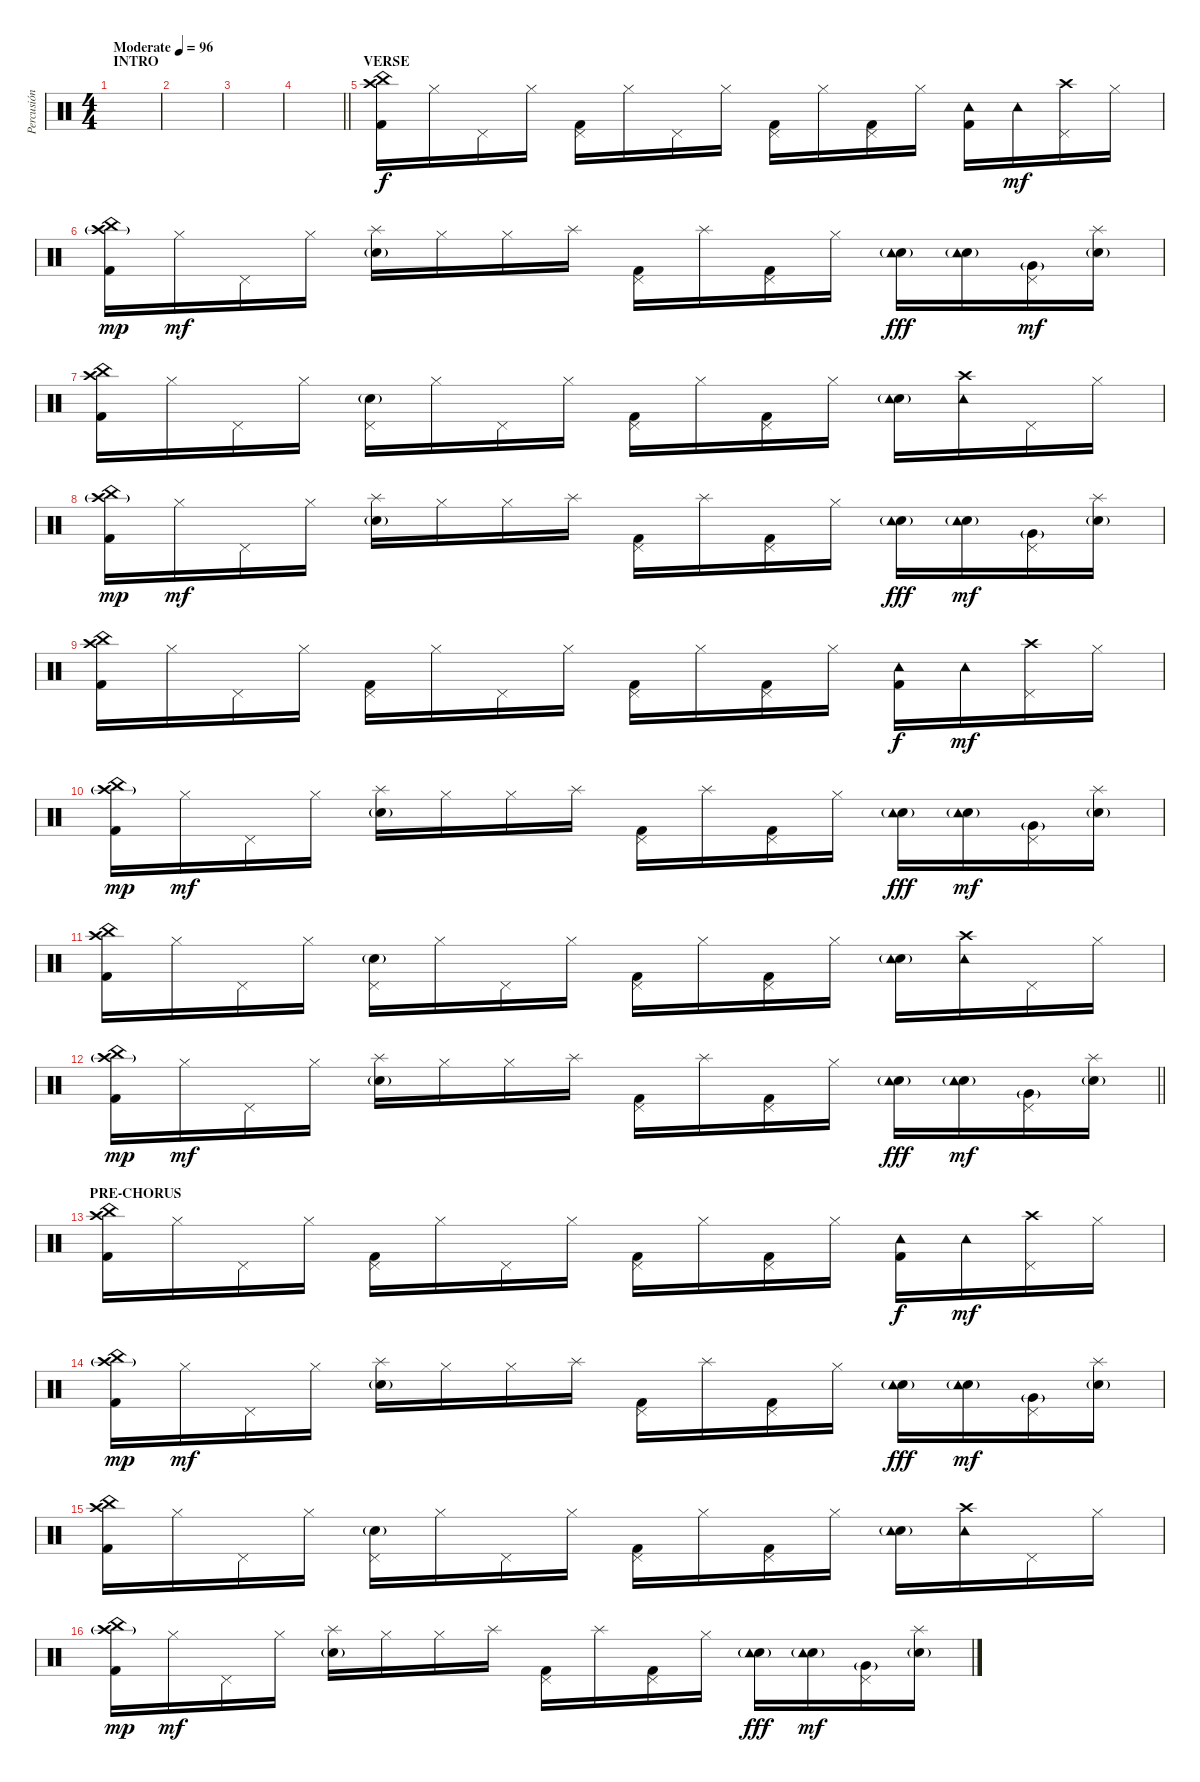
\track ("Percusión" "Percusión") {instrument percussion}
\staff {score}
\articulation defaults
\ts (4 4)
\section ("" "INTRO")
\tempo (96 "Moderate")
\clef neutral
\ks c
|
|
|
\barLineRight lightlight
|
\section ("" "VERSE")
("China (hit)" "Kick (hit) 2" "Crash high (hit)").16 "Hi-Hat (closed)".16 "Pedal Hi-Hat (hit)".16 "Hi-Hat (closed)".16 ("Kick (hit) 2" "Pedal Hi-Hat (hit)").16 "Hi-Hat (closed)".16 "Pedal Hi-Hat (hit)".16 "Hi-Hat (closed)".16 ("Kick (hit) 2" "Pedal Hi-Hat (hit)").16 "Hi-Hat (closed)".16 ("Kick (hit) 2" "Pedal Hi-Hat (hit)").16 "Hi-Hat (closed)".16 ("Kick (hit) 2" "Tambourine (hit)").16{dy f} "Tambourine (hit)".16{dy mf} ("Crash high (hit)" "Pedal Hi-Hat (hit)").16 "Hi-Hat (closed)".16 |
("China (hit)" "Kick (hit) 2" "Crash high (hit)"{g}).16{dy mp} "Hi-Hat (closed)".16{dy mf} "Pedal Hi-Hat (hit)".16 "Hi-Hat (closed)".16 ("Electric Snare (hit)"{g} "Splash (hit)").16 "Hi-Hat (closed)".16 "Hi-Hat (closed)".16 "Splash (hit)".16 ("Kick (hit) 2" "Pedal Hi-Hat (hit)").16 "Splash (hit)".16 ("Kick (hit) 2" "Pedal Hi-Hat (hit)").16 "Hi-Hat (closed)".16 ("Electric Snare (hit)"{g} "Tambourine (hit)").16{dy fff} ("Electric Snare (hit)"{g} "Tambourine (hit)").16 ("Very Low Tom (hit)"{g} "Pedal Hi-Hat (hit)").16{dy mf} ("Electric Snare (hit)"{g} "Splash (hit)").16 |
("China (hit)" "Kick (hit) 2" "Crash high (hit)").16 "Hi-Hat (closed)".16 "Pedal Hi-Hat (hit)".16 "Hi-Hat (closed)".16 ("Electric Snare (hit)"{g} "Pedal Hi-Hat (hit)").16 "Hi-Hat (closed)".16 "Pedal Hi-Hat (hit)".16 "Hi-Hat (closed)".16 ("Kick (hit) 2" "Pedal Hi-Hat (hit)").16 "Hi-Hat (closed)".16 ("Kick (hit) 2" "Pedal Hi-Hat (hit)").16 "Hi-Hat (closed)".16 ("Electric Snare (hit)"{g} "Tambourine (hit)").16 ("Crash high (hit)" "Tambourine (hit)").16 "Pedal Hi-Hat (hit)".16 "Hi-Hat (closed)".16 |
("China (hit)" "Kick (hit) 2" "Crash high (hit)"{g}).16{dy mp} "Hi-Hat (closed)".16{dy mf} "Pedal Hi-Hat (hit)".16 "Hi-Hat (closed)".16 ("Electric Snare (hit)"{g} "Splash (hit)").16 "Hi-Hat (closed)".16 "Hi-Hat (closed)".16 "Splash (hit)".16 ("Kick (hit) 2" "Pedal Hi-Hat (hit)").16 "Splash (hit)".16 ("Kick (hit) 2" "Pedal Hi-Hat (hit)").16 "Hi-Hat (closed)".16 ("Electric Snare (hit)"{g} "Tambourine (hit)").16{dy fff} ("Electric Snare (hit)"{g} "Tambourine (hit)").16{dy mf} ("Very Low Tom (hit)"{g} "Pedal Hi-Hat (hit)").16 ("Electric Snare (hit)"{g} "Splash (hit)").16 |
("China (hit)" "Kick (hit) 2" "Crash high (hit)").16 "Hi-Hat (closed)".16 "Pedal Hi-Hat (hit)".16 "Hi-Hat (closed)".16 ("Kick (hit) 2" "Pedal Hi-Hat (hit)").16 "Hi-Hat (closed)".16 "Pedal Hi-Hat (hit)".16 "Hi-Hat (closed)".16 ("Kick (hit) 2" "Pedal Hi-Hat (hit)").16 "Hi-Hat (closed)".16 ("Kick (hit) 2" "Pedal Hi-Hat (hit)").16 "Hi-Hat (closed)".16 ("Kick (hit) 2" "Tambourine (hit)").16{dy f} "Tambourine (hit)".16{dy mf} ("Crash high (hit)" "Pedal Hi-Hat (hit)").16 "Hi-Hat (closed)".16 |
("China (hit)" "Kick (hit) 2" "Crash high (hit)"{g}).16{dy mp} "Hi-Hat (closed)".16{dy mf} "Pedal Hi-Hat (hit)".16 "Hi-Hat (closed)".16 ("Electric Snare (hit)"{g} "Splash (hit)").16 "Hi-Hat (closed)".16 "Hi-Hat (closed)".16 "Splash (hit)".16 ("Kick (hit) 2" "Pedal Hi-Hat (hit)").16 "Splash (hit)".16 ("Kick (hit) 2" "Pedal Hi-Hat (hit)").16 "Hi-Hat (closed)".16 ("Electric Snare (hit)"{g} "Tambourine (hit)").16{dy fff} ("Electric Snare (hit)"{g} "Tambourine (hit)").16{dy mf} ("Very Low Tom (hit)"{g} "Pedal Hi-Hat (hit)").16 ("Electric Snare (hit)"{g} "Splash (hit)").16 |
("China (hit)" "Kick (hit) 2" "Crash high (hit)").16 "Hi-Hat (closed)".16 "Pedal Hi-Hat (hit)".16 "Hi-Hat (closed)".16 ("Electric Snare (hit)"{g} "Pedal Hi-Hat (hit)").16 "Hi-Hat (closed)".16 "Pedal Hi-Hat (hit)".16 "Hi-Hat (closed)".16 ("Kick (hit) 2" "Pedal Hi-Hat (hit)").16 "Hi-Hat (closed)".16 ("Kick (hit) 2" "Pedal Hi-Hat (hit)").16 "Hi-Hat (closed)".16 ("Electric Snare (hit)"{g} "Tambourine (hit)").16 ("Crash high (hit)" "Tambourine (hit)").16 "Pedal Hi-Hat (hit)".16 "Hi-Hat (closed)".16 |
\barLineRight lightlight
("China (hit)" "Kick (hit) 2" "Crash high (hit)"{g}).16{dy mp} "Hi-Hat (closed)".16{dy mf} "Pedal Hi-Hat (hit)".16 "Hi-Hat (closed)".16 ("Electric Snare (hit)"{g} "Splash (hit)").16 "Hi-Hat (closed)".16 "Hi-Hat (closed)".16 "Splash (hit)".16 ("Kick (hit) 2" "Pedal Hi-Hat (hit)").16 "Splash (hit)".16 ("Kick (hit) 2" "Pedal Hi-Hat (hit)").16 "Hi-Hat (closed)".16 ("Electric Snare (hit)"{g} "Tambourine (hit)").16{dy fff} ("Electric Snare (hit)"{g} "Tambourine (hit)").16{dy mf} ("Very Low Tom (hit)"{g} "Pedal Hi-Hat (hit)").16 ("Electric Snare (hit)"{g} "Splash (hit)").16 |
\section ("" "PRE-CHORUS")
("China (hit)" "Kick (hit) 2" "Crash high (hit)").16 "Hi-Hat (closed)".16 "Pedal Hi-Hat (hit)".16 "Hi-Hat (closed)".16 ("Kick (hit) 2" "Pedal Hi-Hat (hit)").16 "Hi-Hat (closed)".16 "Pedal Hi-Hat (hit)".16 "Hi-Hat (closed)".16 ("Kick (hit) 2" "Pedal Hi-Hat (hit)").16 "Hi-Hat (closed)".16 ("Kick (hit) 2" "Pedal Hi-Hat (hit)").16 "Hi-Hat (closed)".16 ("Kick (hit) 2" "Tambourine (hit)").16{dy f} "Tambourine (hit)".16{dy mf} ("Crash high (hit)" "Pedal Hi-Hat (hit)").16 "Hi-Hat (closed)".16 |
("China (hit)" "Kick (hit) 2" "Crash high (hit)"{g}).16{dy mp} "Hi-Hat (closed)".16{dy mf} "Pedal Hi-Hat (hit)".16 "Hi-Hat (closed)".16 ("Electric Snare (hit)"{g} "Splash (hit)").16 "Hi-Hat (closed)".16 "Hi-Hat (closed)".16 "Splash (hit)".16 ("Kick (hit) 2" "Pedal Hi-Hat (hit)").16 "Splash (hit)".16 ("Kick (hit) 2" "Pedal Hi-Hat (hit)").16 "Hi-Hat (closed)".16 ("Electric Snare (hit)"{g} "Tambourine (hit)").16{dy fff} ("Electric Snare (hit)"{g} "Tambourine (hit)").16{dy mf} ("Very Low Tom (hit)"{g} "Pedal Hi-Hat (hit)").16 ("Electric Snare (hit)"{g} "Splash (hit)").16 |
("China (hit)" "Kick (hit) 2" "Crash high (hit)").16 "Hi-Hat (closed)".16 "Pedal Hi-Hat (hit)".16 "Hi-Hat (closed)".16 ("Electric Snare (hit)"{g} "Pedal Hi-Hat (hit)").16 "Hi-Hat (closed)".16 "Pedal Hi-Hat (hit)".16 "Hi-Hat (closed)".16 ("Kick (hit) 2" "Pedal Hi-Hat (hit)").16 "Hi-Hat (closed)".16 ("Kick (hit) 2" "Pedal Hi-Hat (hit)").16 "Hi-Hat (closed)".16 ("Electric Snare (hit)"{g} "Tambourine (hit)").16 ("Crash high (hit)" "Tambourine (hit)").16 "Pedal Hi-Hat (hit)".16 "Hi-Hat (closed)".16 |
("China (hit)" "Kick (hit) 2" "Crash high (hit)"{g}).16{dy mp} "Hi-Hat (closed)".16{dy mf} "Pedal Hi-Hat (hit)".16 "Hi-Hat (closed)".16 ("Electric Snare (hit)"{g} "Splash (hit)").16 "Hi-Hat (closed)".16 "Hi-Hat (closed)".16 "Splash (hit)".16 ("Kick (hit) 2" "Pedal Hi-Hat (hit)").16 "Splash (hit)".16 ("Kick (hit) 2" "Pedal Hi-Hat (hit)").16 "Hi-Hat (closed)".16 ("Electric Snare (hit)"{g} "Tambourine (hit)").16{dy fff} ("Electric Snare (hit)"{g} "Tambourine (hit)").16{dy mf} ("Very Low Tom (hit)"{g} "Pedal Hi-Hat (hit)").16 ("Electric Snare (hit)"{g} "Splash (hit)").16
